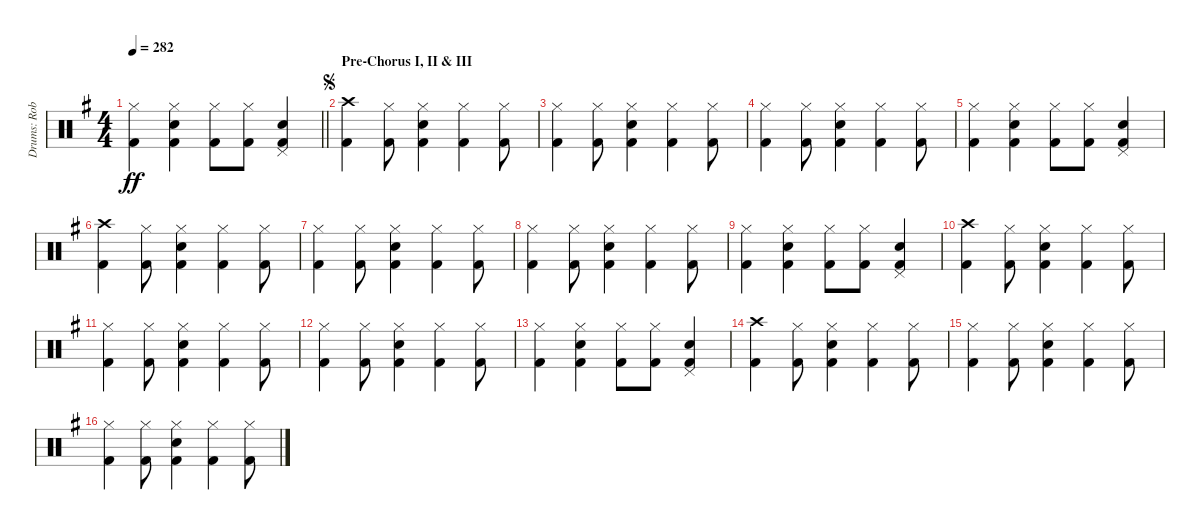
\track ("Drums: Rob" "Drums: Rob") {instrument percussion}
\staff {score}
\articulation defaults
\ts (4 4)
\tempo 282
\clef neutral
\barLineRight lightlight
\ks g
("Hi-Hat (closed)" "Kick (hit) 2").4{dy ff} ("Hi-Hat (closed)" "Snare (hit) 2" "Kick (hit) 2").4 ("Hi-Hat (closed)" "Kick (hit) 2").8 ("Hi-Hat (closed)" "Kick (hit) 2").8 ("Pedal Hi-Hat (hit)" "Snare (hit) 2" "Kick (hit) 2").4 |
\section ("" "Pre-Chorus I, II & III")
\jump segno
("Crash high (hit)" "Kick (hit) 2").4 ("Hi-Hat (closed)" "Kick (hit) 2").8 ("Hi-Hat (closed)" "Snare (hit) 2" "Kick (hit) 2").4 ("Hi-Hat (closed)" "Kick (hit) 2").4 ("Hi-Hat (closed)" "Kick (hit) 2").8 |
("Hi-Hat (closed)" "Kick (hit) 2").4 ("Hi-Hat (closed)" "Kick (hit) 2").8 ("Hi-Hat (closed)" "Snare (hit) 2" "Kick (hit) 2").4 ("Hi-Hat (closed)" "Kick (hit) 2").4 ("Hi-Hat (closed)" "Kick (hit) 2").8 |
("Hi-Hat (closed)" "Kick (hit) 2").4 ("Hi-Hat (closed)" "Kick (hit) 2").8 ("Hi-Hat (closed)" "Snare (hit) 2" "Kick (hit) 2").4 ("Hi-Hat (closed)" "Kick (hit) 2").4 ("Hi-Hat (closed)" "Kick (hit) 2").8 |
("Hi-Hat (closed)" "Kick (hit) 2").4 ("Hi-Hat (closed)" "Snare (hit) 2" "Kick (hit) 2").4 ("Hi-Hat (closed)" "Kick (hit) 2").8 ("Hi-Hat (closed)" "Kick (hit) 2").8 ("Pedal Hi-Hat (hit)" "Snare (hit) 2" "Kick (hit) 2").4 |
("Crash high (hit)" "Kick (hit) 2").4 ("Hi-Hat (closed)" "Kick (hit) 2").8 ("Hi-Hat (closed)" "Snare (hit) 2" "Kick (hit) 2").4 ("Hi-Hat (closed)" "Kick (hit) 2").4 ("Hi-Hat (closed)" "Kick (hit) 2").8 |
("Hi-Hat (closed)" "Kick (hit) 2").4 ("Hi-Hat (closed)" "Kick (hit) 2").8 ("Hi-Hat (closed)" "Snare (hit) 2" "Kick (hit) 2").4 ("Hi-Hat (closed)" "Kick (hit) 2").4 ("Hi-Hat (closed)" "Kick (hit) 2").8 |
("Hi-Hat (closed)" "Kick (hit) 2").4 ("Hi-Hat (closed)" "Kick (hit) 2").8 ("Hi-Hat (closed)" "Snare (hit) 2" "Kick (hit) 2").4 ("Hi-Hat (closed)" "Kick (hit) 2").4 ("Hi-Hat (closed)" "Kick (hit) 2").8 |
("Hi-Hat (closed)" "Kick (hit) 2").4 ("Hi-Hat (closed)" "Snare (hit) 2" "Kick (hit) 2").4 ("Hi-Hat (closed)" "Kick (hit) 2").8 ("Hi-Hat (closed)" "Kick (hit) 2").8 ("Pedal Hi-Hat (hit)" "Snare (hit) 2" "Kick (hit) 2").4 |
("Crash high (hit)" "Kick (hit) 2").4 ("Hi-Hat (closed)" "Kick (hit) 2").8 ("Hi-Hat (closed)" "Snare (hit) 2" "Kick (hit) 2").4 ("Hi-Hat (closed)" "Kick (hit) 2").4 ("Hi-Hat (closed)" "Kick (hit) 2").8 |
("Hi-Hat (closed)" "Kick (hit) 2").4 ("Hi-Hat (closed)" "Kick (hit) 2").8 ("Hi-Hat (closed)" "Snare (hit) 2" "Kick (hit) 2").4 ("Hi-Hat (closed)" "Kick (hit) 2").4 ("Hi-Hat (closed)" "Kick (hit) 2").8 |
("Hi-Hat (closed)" "Kick (hit) 2").4 ("Hi-Hat (closed)" "Kick (hit) 2").8 ("Hi-Hat (closed)" "Snare (hit) 2" "Kick (hit) 2").4 ("Hi-Hat (closed)" "Kick (hit) 2").4 ("Hi-Hat (closed)" "Kick (hit) 2").8 |
("Hi-Hat (closed)" "Kick (hit) 2").4 ("Hi-Hat (closed)" "Snare (hit) 2" "Kick (hit) 2").4 ("Hi-Hat (closed)" "Kick (hit) 2").8 ("Hi-Hat (closed)" "Kick (hit) 2").8 ("Pedal Hi-Hat (hit)" "Snare (hit) 2" "Kick (hit) 2").4 |
("Crash high (hit)" "Kick (hit) 2").4 ("Hi-Hat (closed)" "Kick (hit) 2").8 ("Hi-Hat (closed)" "Snare (hit) 2" "Kick (hit) 2").4 ("Hi-Hat (closed)" "Kick (hit) 2").4 ("Hi-Hat (closed)" "Kick (hit) 2").8 |
("Hi-Hat (closed)" "Kick (hit) 2").4 ("Hi-Hat (closed)" "Kick (hit) 2").8 ("Hi-Hat (closed)" "Snare (hit) 2" "Kick (hit) 2").4 ("Hi-Hat (closed)" "Kick (hit) 2").4 ("Hi-Hat (closed)" "Kick (hit) 2").8 |
("Hi-Hat (closed)" "Kick (hit) 2").4 ("Hi-Hat (closed)" "Kick (hit) 2").8 ("Hi-Hat (closed)" "Snare (hit) 2" "Kick (hit) 2").4 ("Hi-Hat (closed)" "Kick (hit) 2").4 ("Hi-Hat (closed)" "Kick (hit) 2").8
